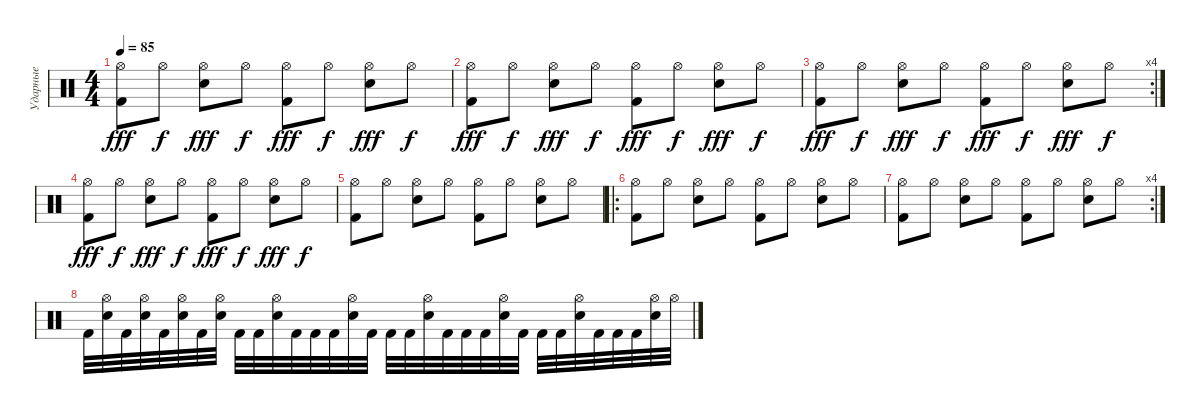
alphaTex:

\track ("Ударные" "Ударные") {instrument percussion}
\staff {score}
\articulation defaults
\ts (4 4)
\tempo 85
\clef neutral
\ks c
("Kick (hit) 2" "Hi-Hat (open)").8{dy fff} "Hi-Hat (open)".8{dy f} ("Snare (hit) 2" "Hi-Hat (open)").8{dy fff} "Hi-Hat (open)".8{dy f} ("Kick (hit) 2" "Hi-Hat (open)").8{dy fff} "Hi-Hat (open)".8{dy f} ("Snare (hit) 2" "Hi-Hat (open)").8{dy fff} "Hi-Hat (open)".8{dy f} |
("Kick (hit) 2" "Hi-Hat (open)").8{dy fff} "Hi-Hat (open)".8{dy f} ("Snare (hit) 2" "Hi-Hat (open)").8{dy fff} "Hi-Hat (open)".8{dy f} ("Kick (hit) 2" "Hi-Hat (open)").8{dy fff} "Hi-Hat (open)".8{dy f} ("Snare (hit) 2" "Hi-Hat (open)").8{dy fff} "Hi-Hat (open)".8{dy f} |
\rc 4
("Kick (hit) 2" "Hi-Hat (open)").8{dy fff} "Hi-Hat (open)".8{dy f} ("Snare (hit) 2" "Hi-Hat (open)").8{dy fff} "Hi-Hat (open)".8{dy f} ("Kick (hit) 2" "Hi-Hat (open)").8{dy fff} "Hi-Hat (open)".8{dy f} ("Snare (hit) 2" "Hi-Hat (open)").8{dy fff} "Hi-Hat (open)".8{dy f} |
("Kick (hit) 2" "Hi-Hat (open)").8{dy fff} "Hi-Hat (open)".8{dy f} ("Snare (hit) 2" "Hi-Hat (open)").8{dy fff} "Hi-Hat (open)".8{dy f} ("Kick (hit) 2" "Hi-Hat (open)").8{dy fff} "Hi-Hat (open)".8{dy f} ("Snare (hit) 2" "Hi-Hat (open)").8{dy fff} "Hi-Hat (open)".8{dy f} |
("Kick (hit) 2" "Hi-Hat (open)").8 "Hi-Hat (open)".8 ("Snare (hit) 2" "Hi-Hat (open)").8 "Hi-Hat (open)".8 ("Kick (hit) 2" "Hi-Hat (open)").8 "Hi-Hat (open)".8 ("Snare (hit) 2" "Hi-Hat (open)").8 "Hi-Hat (open)".8 |
\ro
("Kick (hit) 2" "Hi-Hat (open)").8 "Hi-Hat (open)".8 ("Snare (hit) 2" "Hi-Hat (open)").8 "Hi-Hat (open)".8 ("Kick (hit) 2" "Hi-Hat (open)").8 "Hi-Hat (open)".8 ("Snare (hit) 2" "Hi-Hat (open)").8 "Hi-Hat (open)".8 |
\rc 4
("Kick (hit) 2" "Hi-Hat (open)").8 "Hi-Hat (open)".8 ("Snare (hit) 2" "Hi-Hat (open)").8 "Hi-Hat (open)".8 ("Kick (hit) 2" "Hi-Hat (open)").8 "Hi-Hat (open)".8 ("Snare (hit) 2" "Hi-Hat (open)").8 "Hi-Hat (open)".8 |
"Kick (hit) 2".32 ("Snare (hit) 2" "Hi-Hat (open)").32 "Kick (hit) 2".32 ("Snare (hit) 2" "Hi-Hat (open)").32 "Kick (hit) 2".32 ("Snare (hit) 2" "Hi-Hat (open)").32 "Kick (hit) 2".32 ("Snare (hit) 2" "Hi-Hat (open)").32 "Kick (hit) 2".32 "Kick (hit) 2".32 ("Snare (hit) 2" "Hi-Hat (open)").32 "Kick (hit) 2".32 "Kick (hit) 2".32 "Kick (hit) 2".32 ("Snare (hit) 2" "Hi-Hat (open)").32 "Kick (hit) 2".32 "Kick (hit) 2".32 "Kick (hit) 2".32 ("Snare (hit) 2" "Hi-Hat (open)").32 "Kick (hit) 2".32 "Kick (hit) 2".32 "Kick (hit) 2".32 ("Snare (hit) 2" "Hi-Hat (open)").32 "Kick (hit) 2".32 "Kick (hit) 2".32 "Kick (hit) 2".32 ("Snare (hit) 2" "Hi-Hat (open)").32 "Kick (hit) 2".32 "Kick (hit) 2".32 "Kick (hit) 2".32 ("Snare (hit) 2" "Hi-Hat (open)").32 "Hi-Hat (open)".32
